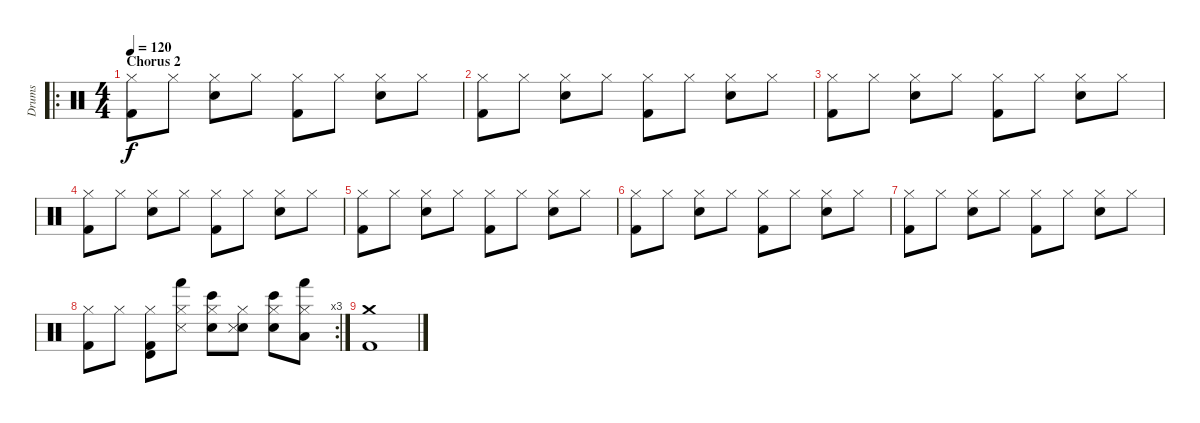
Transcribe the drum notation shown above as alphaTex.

\track ("Drums" "Drums") {instrument percussion}
\staff {score}
\articulation defaults
\ro
\ts (4 4)
\section ("" "Chorus 2")
\tempo 120
\clef neutral
\ks c
("Hi-Hat (closed)" "Kick (hit) 2").8{dy f} "Hi-Hat (closed)".8 ("Hi-Hat (closed)" "Snare (hit) 2").8 "Hi-Hat (closed)".8 ("Hi-Hat (closed)" "Kick (hit) 2").8 "Hi-Hat (closed)".8 ("Hi-Hat (closed)" "Snare (hit) 2").8 "Hi-Hat (closed)".8 |
("Hi-Hat (closed)" "Kick (hit) 2").8 "Hi-Hat (closed)".8 ("Hi-Hat (closed)" "Snare (hit) 2").8 "Hi-Hat (closed)".8 ("Hi-Hat (closed)" "Kick (hit) 2").8 "Hi-Hat (closed)".8 ("Hi-Hat (closed)" "Snare (hit) 2").8 "Hi-Hat (closed)".8 |
("Hi-Hat (closed)" "Kick (hit) 2").8 "Hi-Hat (closed)".8 ("Hi-Hat (closed)" "Snare (hit) 2").8 "Hi-Hat (closed)".8 ("Hi-Hat (closed)" "Kick (hit) 2").8 "Hi-Hat (closed)".8 ("Hi-Hat (closed)" "Snare (hit) 2").8 "Hi-Hat (closed)".8 |
("Hi-Hat (closed)" "Kick (hit) 2").8 "Hi-Hat (closed)".8 ("Hi-Hat (closed)" "Snare (hit) 2").8 "Hi-Hat (closed)".8 ("Hi-Hat (closed)" "Kick (hit) 2").8 "Hi-Hat (closed)".8 ("Hi-Hat (closed)" "Snare (hit) 2").8 "Hi-Hat (closed)".8 |
("Hi-Hat (closed)" "Kick (hit) 2").8 "Hi-Hat (closed)".8 ("Hi-Hat (closed)" "Snare (hit) 2").8 "Hi-Hat (closed)".8 ("Hi-Hat (closed)" "Kick (hit) 2").8 "Hi-Hat (closed)".8 ("Hi-Hat (closed)" "Snare (hit) 2").8 "Hi-Hat (closed)".8 |
("Hi-Hat (closed)" "Kick (hit) 2").8 "Hi-Hat (closed)".8 ("Hi-Hat (closed)" "Snare (hit) 2").8 "Hi-Hat (closed)".8 ("Hi-Hat (closed)" "Kick (hit) 2").8 "Hi-Hat (closed)".8 ("Hi-Hat (closed)" "Snare (hit) 2").8 "Hi-Hat (closed)".8 |
("Hi-Hat (closed)" "Kick (hit) 2").8 "Hi-Hat (closed)".8 ("Hi-Hat (closed)" "Snare (hit) 2").8 "Hi-Hat (closed)".8 ("Hi-Hat (closed)" "Kick (hit) 2").8 "Hi-Hat (closed)".8 ("Hi-Hat (closed)" "Snare (hit) 2").8 "Hi-Hat (closed)".8 |
\rc 3
("Hi-Hat (closed)" "Kick (hit) 2").8 "Hi-Hat (closed)".8 ("Kick (hit) 2" "Timbale high (hit)" "Hi-Hat (closed)").8 ("Snare (side stick) 3" "Hand (hit)" "Hi-Hat (closed)").8 ("Snare (hit) 2" "Bongo High (hit)" "Hi-Hat (closed)").8 ("Hand Clap (hit)" "Snare (side stick) 3" "Hi-Hat (closed)").8 ("Electric Snare (hit)" "Bongo High (hit)" "Hi-Hat (closed)").8 ("Low Floor Tom (hit)" "Hand (hit)" "Hi-Hat (closed)").8 |
("Kick (hit) 2" "Crash medium (hit)").1
